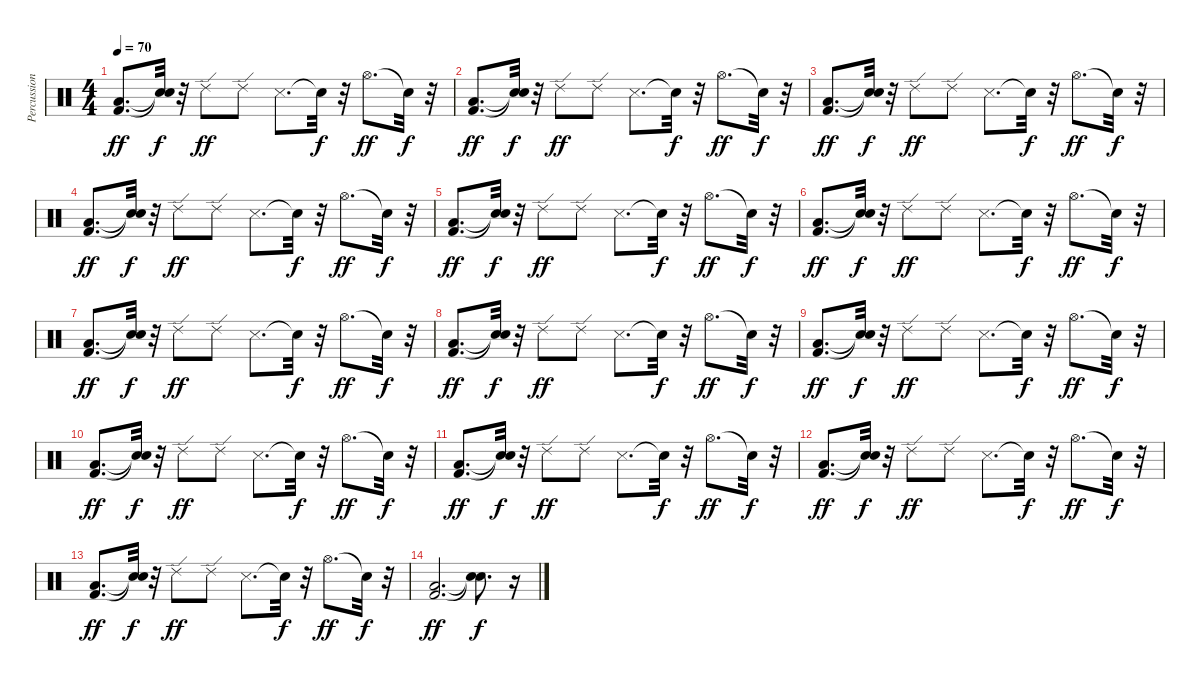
\track ("Percussions2" "Percussion") {instrument percussion}
\staff {score}
\articulation defaults
\ts (4 4)
\tempo 70
\clef neutral
\ks c
("Kick (hit) 2" "Low Floor Tom (hit)").8{d dy ff} ("Snare (hit)"{t} "Snare (hit)"{t}).32{dy f} r.32 "Ride (edge) 2".8{dy ff} "Ride (edge) 2".8 "Snare (side stick) 3".8{d} "Snare (hit)"{t}.32{dy f} r.32 "Hi-Hat (open)".8{d dy ff} "Snare (hit)"{t}.32{dy f} r.32 |
("Kick (hit) 2" "Low Floor Tom (hit)").8{d dy ff} ("Snare (hit)"{t} "Snare (hit)"{t}).32{dy f} r.32 "Ride (edge) 2".8{dy ff} "Ride (edge) 2".8 "Snare (side stick) 3".8{d} "Snare (hit)"{t}.32{dy f} r.32 "Hi-Hat (open)".8{d dy ff} "Snare (hit)"{t}.32{dy f} r.32 |
("Kick (hit) 2" "Low Floor Tom (hit)").8{d dy ff} ("Snare (hit)"{t} "Snare (hit)"{t}).32{dy f} r.32 "Ride (edge) 2".8{dy ff} "Ride (edge) 2".8 "Snare (side stick) 3".8{d} "Snare (hit)"{t}.32{dy f} r.32 "Hi-Hat (open)".8{d dy ff} "Snare (hit)"{t}.32{dy f} r.32 |
("Kick (hit) 2" "Low Floor Tom (hit)").8{d dy ff} ("Snare (hit)"{t} "Snare (hit)"{t}).32{dy f} r.32 "Ride (edge) 2".8{dy ff} "Ride (edge) 2".8 "Snare (side stick) 3".8{d} "Snare (hit)"{t}.32{dy f} r.32 "Hi-Hat (open)".8{d dy ff} "Snare (hit)"{t}.32{dy f} r.32 |
("Kick (hit) 2" "Low Floor Tom (hit)").8{d dy ff} ("Snare (hit)"{t} "Snare (hit)"{t}).32{dy f} r.32 "Ride (edge) 2".8{dy ff} "Ride (edge) 2".8 "Snare (side stick) 3".8{d} "Snare (hit)"{t}.32{dy f} r.32 "Hi-Hat (open)".8{d dy ff} "Snare (hit)"{t}.32{dy f} r.32 |
("Kick (hit) 2" "Low Floor Tom (hit)").8{d dy ff} ("Snare (hit)"{t} "Snare (hit)"{t}).32{dy f} r.32 "Ride (edge) 2".8{dy ff} "Ride (edge) 2".8 "Snare (side stick) 3".8{d} "Snare (hit)"{t}.32{dy f} r.32 "Hi-Hat (open)".8{d dy ff} "Snare (hit)"{t}.32{dy f} r.32 |
("Kick (hit) 2" "Low Floor Tom (hit)").8{d dy ff} ("Snare (hit)"{t} "Snare (hit)"{t}).32{dy f} r.32 "Ride (edge) 2".8{dy ff} "Ride (edge) 2".8 "Snare (side stick) 3".8{d} "Snare (hit)"{t}.32{dy f} r.32 "Hi-Hat (open)".8{d dy ff} "Snare (hit)"{t}.32{dy f} r.32 |
("Kick (hit) 2" "Low Floor Tom (hit)").8{d dy ff} ("Snare (hit)"{t} "Snare (hit)"{t}).32{dy f} r.32 "Ride (edge) 2".8{dy ff} "Ride (edge) 2".8 "Snare (side stick) 3".8{d} "Snare (hit)"{t}.32{dy f} r.32 "Hi-Hat (open)".8{d dy ff} "Snare (hit)"{t}.32{dy f} r.32 |
("Kick (hit) 2" "Low Floor Tom (hit)").8{d dy ff} ("Snare (hit)"{t} "Snare (hit)"{t}).32{dy f} r.32 "Ride (edge) 2".8{dy ff} "Ride (edge) 2".8 "Snare (side stick) 3".8{d} "Snare (hit)"{t}.32{dy f} r.32 "Hi-Hat (open)".8{d dy ff} "Snare (hit)"{t}.32{dy f} r.32 |
("Kick (hit) 2" "Low Floor Tom (hit)").8{d dy ff} ("Snare (hit)"{t} "Snare (hit)"{t}).32{dy f} r.32 "Ride (edge) 2".8{dy ff} "Ride (edge) 2".8 "Snare (side stick) 3".8{d} "Snare (hit)"{t}.32{dy f} r.32 "Hi-Hat (open)".8{d dy ff} "Snare (hit)"{t}.32{dy f} r.32 |
("Kick (hit) 2" "Low Floor Tom (hit)").8{d dy ff} ("Snare (hit)"{t} "Snare (hit)"{t}).32{dy f} r.32 "Ride (edge) 2".8{dy ff} "Ride (edge) 2".8 "Snare (side stick) 3".8{d} "Snare (hit)"{t}.32{dy f} r.32 "Hi-Hat (open)".8{d dy ff} "Snare (hit)"{t}.32{dy f} r.32 |
("Kick (hit) 2" "Low Floor Tom (hit)").8{d dy ff} ("Snare (hit)"{t} "Snare (hit)"{t}).32{dy f} r.32 "Ride (edge) 2".8{dy ff} "Ride (edge) 2".8 "Snare (side stick) 3".8{d} "Snare (hit)"{t}.32{dy f} r.32 "Hi-Hat (open)".8{d dy ff} "Snare (hit)"{t}.32{dy f} r.32 |
("Kick (hit) 2" "Low Floor Tom (hit)").8{d dy ff} ("Snare (hit)"{t} "Snare (hit)"{t}).32{dy f} r.32 "Ride (edge) 2".8{dy ff} "Ride (edge) 2".8 "Snare (side stick) 3".8{d} "Snare (hit)"{t}.32{dy f} r.32 "Hi-Hat (open)".8{d dy ff} "Snare (hit)"{t}.32{dy f} r.32 |
("Kick (hit) 2" "Low Floor Tom (hit)").2{d dy ff} ("Snare (hit)"{t} "Snare (hit)"{t}).8{d dy f} r.16
